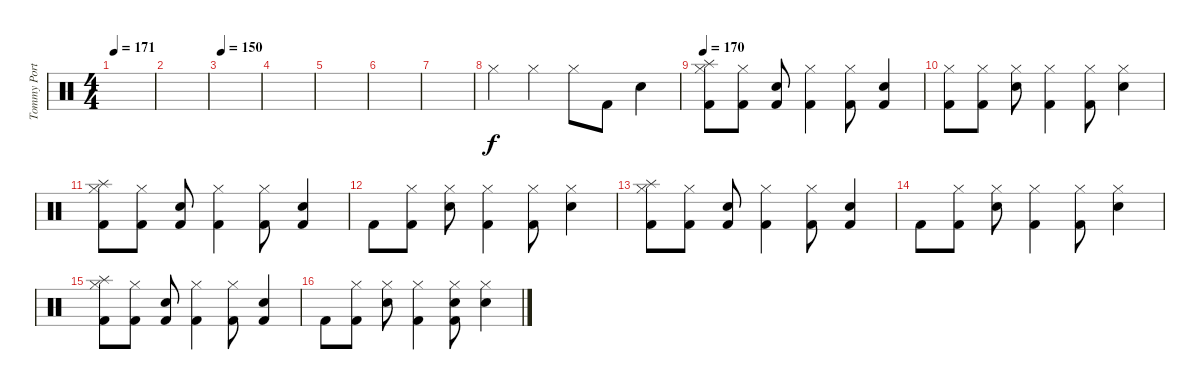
\track ("Tommy Portimo" "Tommy Port") {instrument percussion}
\staff {score}
\articulation defaults
\ts (4 4)
\tempo 171
\tempo 150
\tempo 171
\clef neutral
\ks c
|
|
\tempo 150
|
|
|
|
|
"Hi-Hat (closed)".4 "Hi-Hat (closed)".4 "Hi-Hat (closed)".8 "Kick (hit) 2".8 "Electric Snare (hit)".4 |
\tempo 170
("Splash (hit)" "Kick (hit) 2" "Hi-Hat (closed)").8 ("Kick (hit) 2" "Hi-Hat (closed)").8 ("Electric Snare (hit)" "Kick (hit) 2").8 ("Kick (hit) 2" "Hi-Hat (closed)").4 ("Kick (hit) 2" "Hi-Hat (closed)").8 ("Electric Snare (hit)" "Kick (hit) 2").4 |
("Kick (hit) 2" "Hi-Hat (closed)").8 ("Kick (hit) 2" "Hi-Hat (closed)").8 ("Electric Snare (hit)" "Hi-Hat (closed)").8 ("Kick (hit) 2" "Hi-Hat (closed)").4 ("Kick (hit) 2" "Hi-Hat (closed)").8 ("Electric Snare (hit)" "Hi-Hat (closed)").4 |
("Splash (hit)" "Kick (hit) 2" "Hi-Hat (closed)").8 ("Kick (hit) 2" "Hi-Hat (closed)").8 ("Electric Snare (hit)" "Kick (hit) 2").8 ("Kick (hit) 2" "Hi-Hat (closed)").4 ("Kick (hit) 2" "Hi-Hat (closed)").8 ("Electric Snare (hit)" "Kick (hit) 2").4 |
"Kick (hit) 2".8 ("Kick (hit) 2" "Hi-Hat (closed)").8 ("Electric Snare (hit)" "Hi-Hat (closed)").8 ("Kick (hit) 2" "Hi-Hat (closed)").4 ("Kick (hit) 2" "Hi-Hat (closed)").8 ("Electric Snare (hit)" "Hi-Hat (closed)").4 |
("Splash (hit)" "Kick (hit) 2" "Hi-Hat (closed)").8 ("Kick (hit) 2" "Hi-Hat (closed)").8 ("Electric Snare (hit)" "Kick (hit) 2").8 ("Kick (hit) 2" "Hi-Hat (closed)").4 ("Kick (hit) 2" "Hi-Hat (closed)").8 ("Electric Snare (hit)" "Kick (hit) 2").4 |
"Kick (hit) 2".8 ("Kick (hit) 2" "Hi-Hat (closed)").8 ("Electric Snare (hit)" "Hi-Hat (closed)").8 ("Kick (hit) 2" "Hi-Hat (closed)").4 ("Kick (hit) 2" "Hi-Hat (closed)").8 ("Electric Snare (hit)" "Hi-Hat (closed)").4 |
("Splash (hit)" "Kick (hit) 2" "Hi-Hat (closed)").8 ("Kick (hit) 2" "Hi-Hat (closed)").8 ("Electric Snare (hit)" "Kick (hit) 2").8 ("Kick (hit) 2" "Hi-Hat (closed)").4 ("Kick (hit) 2" "Hi-Hat (closed)").8 ("Electric Snare (hit)" "Kick (hit) 2").4 |
"Kick (hit) 2".8 ("Kick (hit) 2" "Hi-Hat (closed)").8 ("Electric Snare (hit)" "Hi-Hat (closed)").8 ("Kick (hit) 2" "Hi-Hat (closed)").4 ("Electric Snare (hit)" "Kick (hit) 2" "Hi-Hat (closed)").8 ("Electric Snare (hit)" "Hi-Hat (closed)").4
